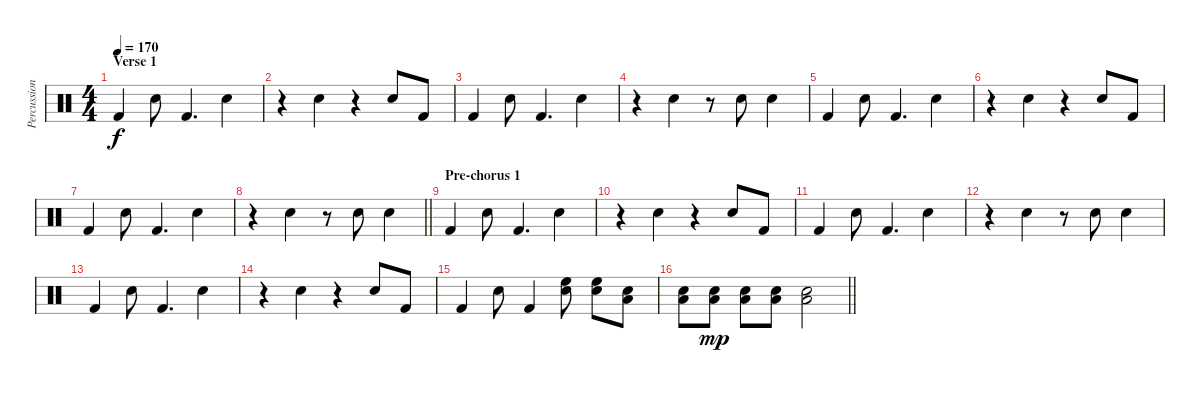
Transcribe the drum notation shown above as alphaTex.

\track ("Percussion" "Percussion") {instrument percussion}
\staff {score}
\articulation defaults
\ts (4 4)
\section ("" "Verse 1")
\tempo 170
\clef neutral
\ks c "Kick (hit) 2".4{dy f} "Hand Clap (hit)".8 "Kick (hit) 2".4{d} "Hand Clap (hit)".4
|
r.4 "Hand Clap (hit)".4 r.4 "Hand Clap (hit)".8 "Kick (hit) 2".8 |
"Kick (hit) 2".4 "Hand Clap (hit)".8 "Kick (hit) 2".4{d} "Hand Clap (hit)".4 |
r.4 "Hand Clap (hit)".4 r.8 "Hand Clap (hit)".8 "Hand Clap (hit)".4 |
"Kick (hit) 2".4 "Hand Clap (hit)".8 "Kick (hit) 2".4{d} "Hand Clap (hit)".4 |
r.4 "Hand Clap (hit)".4 r.4 "Hand Clap (hit)".8 "Kick (hit) 2".8 |
"Kick (hit) 2".4 "Hand Clap (hit)".8 "Kick (hit) 2".4{d} "Hand Clap (hit)".4 |
\barLineRight lightlight
r.4 "Hand Clap (hit)".4 r.8 "Hand Clap (hit)".8 "Hand Clap (hit)".4 |
\section ("" "Pre-chorus 1")
"Kick (hit) 2".4 "Hand Clap (hit)".8 "Kick (hit) 2".4{d} "Hand Clap (hit)".4 |
r.4 "Hand Clap (hit)".4 r.4 "Hand Clap (hit)".8 "Kick (hit) 2".8 |
"Kick (hit) 2".4 "Hand Clap (hit)".8 "Kick (hit) 2".4{d} "Hand Clap (hit)".4 |
r.4 "Hand Clap (hit)".4 r.8 "Hand Clap (hit)".8 "Hand Clap (hit)".4 |
"Kick (hit) 2".4 "Hand Clap (hit)".8 "Kick (hit) 2".4{d} "Hand Clap (hit)".4 |
r.4 "Hand Clap (hit)".4 r.4 "Hand Clap (hit)".8 "Kick (hit) 2".8 |
"Kick (hit) 2".4 "Hand Clap (hit)".8 "Kick (hit) 2".4 ("High Floor Tom (hit)" "Electric Snare (hit)").8 ("High Floor Tom (hit)" "Electric Snare (hit)").8 ("Low Tom (hit)" "Electric Snare (hit)").8 |
\barLineRight lightlight
("Low Tom (hit)" "Electric Snare (hit)").8 ("Low Tom (hit)" "Electric Snare (hit)").8{dy mp} ("Low Tom (hit)" "Electric Snare (hit)").8 ("Low Tom (hit)" "Electric Snare (hit)").8 ("Low Tom (hit)" "Electric Snare (hit)").2
